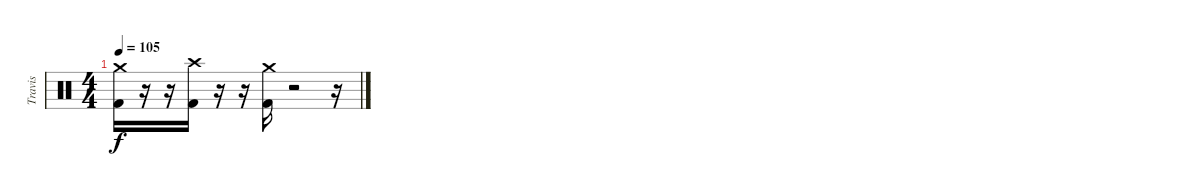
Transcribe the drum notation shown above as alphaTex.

\track ("Travis" "Travis") {instrument percussion}
\staff {score}
\articulation defaults
\ts (4 4)
\tempo 105
\clef neutral
\ks c
("Crash medium (hit)" "Kick (hit) 2").16{dy f} r.16 r.16 ("Crash high (hit)" "Kick (hit) 2").16 r.16 r.16 ("Crash medium (hit)" "Kick (hit) 2").16 r.2 r.16
